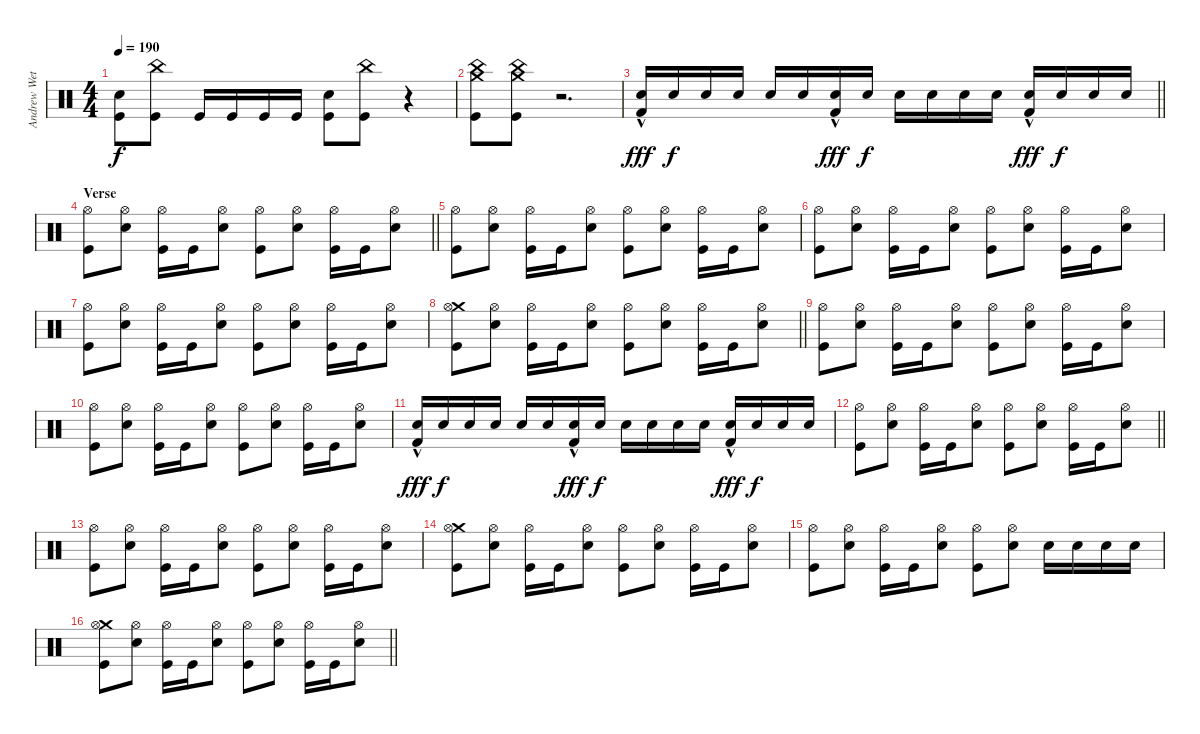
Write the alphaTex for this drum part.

\track ("Andrew Wetzel" "Andrew Wet") {instrument percussion}
\staff {score}
\articulation defaults
\ts (4 4)
\tempo 190
\clef neutral
\ks c
("Snare (hit) 2" "Kick (hit)").8{dy f} ("China (hit)" "Kick (hit)").8 "Kick (hit)".16 "Kick (hit)".16 "Kick (hit)".16 "Kick (hit)".16 ("Snare (hit) 2" "Kick (hit)").8 ("China (hit)" "Kick (hit)").8 r.4 |
("Crash medium (hit)" "China (hit)" "Kick (hit)").8 ("Crash medium (hit)" "China (hit)" "Kick (hit)").8 r.2{d} |
\barLineRight lightlight
("Snare (hit) 2"{hac} "Kick (hit) 2"{hac}).16{dy fff} "Snare (hit) 2".16{dy f} "Snare (hit) 2".16 "Snare (hit) 2".16 "Snare (hit) 2".16 "Snare (hit) 2".16 ("Snare (hit) 2"{hac} "Kick (hit) 2"{hac}).16{dy fff} "Snare (hit) 2".16{dy f} "Snare (hit) 2".16 "Snare (hit) 2".16 "Snare (hit) 2".16 "Snare (hit) 2".16 ("Snare (hit) 2"{hac} "Kick (hit) 2"{hac}).16{dy fff} "Snare (hit) 2".16{dy f} "Snare (hit) 2".16 "Snare (hit) 2".16 |
\section ("" "Verse")
\barLineRight lightlight
("Hi-Hat (open)" "Kick (hit)").8 ("Hi-Hat (open)" "Snare (hit) 2").8 ("Hi-Hat (open)" "Kick (hit)").16 "Kick (hit)".16 ("Hi-Hat (open)" "Snare (hit) 2").8 ("Hi-Hat (open)" "Kick (hit)").8 ("Hi-Hat (open)" "Snare (hit) 2").8 ("Hi-Hat (open)" "Kick (hit)").16 "Kick (hit)".16 ("Hi-Hat (open)" "Snare (hit) 2").8 |
("Hi-Hat (open)" "Kick (hit)").8 ("Hi-Hat (open)" "Snare (hit) 2").8 ("Hi-Hat (open)" "Kick (hit)").16 "Kick (hit)".16 ("Hi-Hat (open)" "Snare (hit) 2").8 ("Hi-Hat (open)" "Kick (hit)").8 ("Hi-Hat (open)" "Snare (hit) 2").8 ("Hi-Hat (open)" "Kick (hit)").16 "Kick (hit)".16 ("Hi-Hat (open)" "Snare (hit) 2").8 |
("Hi-Hat (open)" "Kick (hit)").8 ("Hi-Hat (open)" "Snare (hit) 2").8 ("Hi-Hat (open)" "Kick (hit)").16 "Kick (hit)".16 ("Hi-Hat (open)" "Snare (hit) 2").8 ("Hi-Hat (open)" "Kick (hit)").8 ("Hi-Hat (open)" "Snare (hit) 2").8 ("Hi-Hat (open)" "Kick (hit)").16 "Kick (hit)".16 ("Hi-Hat (open)" "Snare (hit) 2").8 |
("Hi-Hat (open)" "Kick (hit)").8 ("Hi-Hat (open)" "Snare (hit) 2").8 ("Hi-Hat (open)" "Kick (hit)").16 "Kick (hit)".16 ("Hi-Hat (open)" "Snare (hit) 2").8 ("Hi-Hat (open)" "Kick (hit)").8 ("Hi-Hat (open)" "Snare (hit) 2").8 ("Hi-Hat (open)" "Kick (hit)").16 "Kick (hit)".16 ("Hi-Hat (open)" "Snare (hit) 2").8 |
\barLineRight lightlight
("Crash medium (hit)" "Hi-Hat (open)" "Kick (hit)").8 ("Hi-Hat (open)" "Snare (hit) 2").8 ("Hi-Hat (open)" "Kick (hit)").16 "Kick (hit)".16 ("Hi-Hat (open)" "Snare (hit) 2").8 ("Hi-Hat (open)" "Kick (hit)").8 ("Hi-Hat (open)" "Snare (hit) 2").8 ("Hi-Hat (open)" "Kick (hit)").16 "Kick (hit)".16 ("Hi-Hat (open)" "Snare (hit) 2").8 |
("Hi-Hat (open)" "Kick (hit)").8 ("Hi-Hat (open)" "Snare (hit) 2").8 ("Hi-Hat (open)" "Kick (hit)").16 "Kick (hit)".16 ("Hi-Hat (open)" "Snare (hit) 2").8 ("Hi-Hat (open)" "Kick (hit)").8 ("Hi-Hat (open)" "Snare (hit) 2").8 ("Hi-Hat (open)" "Kick (hit)").16 "Kick (hit)".16 ("Hi-Hat (open)" "Snare (hit) 2").8 |
("Hi-Hat (open)" "Kick (hit)").8 ("Hi-Hat (open)" "Snare (hit) 2").8 ("Hi-Hat (open)" "Kick (hit)").16 "Kick (hit)".16 ("Hi-Hat (open)" "Snare (hit) 2").8 ("Hi-Hat (open)" "Kick (hit)").8 ("Hi-Hat (open)" "Snare (hit) 2").8 ("Hi-Hat (open)" "Kick (hit)").16 "Kick (hit)".16 ("Hi-Hat (open)" "Snare (hit) 2").8 |
("Snare (hit) 2"{hac} "Kick (hit) 2"{hac}).16{dy fff} "Snare (hit) 2".16{dy f} "Snare (hit) 2".16 "Snare (hit) 2".16 "Snare (hit) 2".16 "Snare (hit) 2".16 ("Snare (hit) 2"{hac} "Kick (hit) 2"{hac}).16{dy fff} "Snare (hit) 2".16{dy f} "Snare (hit) 2".16 "Snare (hit) 2".16 "Snare (hit) 2".16 "Snare (hit) 2".16 ("Snare (hit) 2"{hac} "Kick (hit) 2"{hac}).16{dy fff} "Snare (hit) 2".16{dy f} "Snare (hit) 2".16 "Snare (hit) 2".16 |
\barLineRight lightlight
("Hi-Hat (open)" "Kick (hit)").8 ("Hi-Hat (open)" "Snare (hit) 2").8 ("Hi-Hat (open)" "Kick (hit)").16 "Kick (hit)".16 ("Hi-Hat (open)" "Snare (hit) 2").8 ("Hi-Hat (open)" "Kick (hit)").8 ("Hi-Hat (open)" "Snare (hit) 2").8 ("Hi-Hat (open)" "Kick (hit)").16 "Kick (hit)".16 ("Hi-Hat (open)" "Snare (hit) 2").8 |
("Hi-Hat (open)" "Kick (hit)").8 ("Hi-Hat (open)" "Snare (hit) 2").8 ("Hi-Hat (open)" "Kick (hit)").16 "Kick (hit)".16 ("Hi-Hat (open)" "Snare (hit) 2").8 ("Hi-Hat (open)" "Kick (hit)").8 ("Hi-Hat (open)" "Snare (hit) 2").8 ("Hi-Hat (open)" "Kick (hit)").16 "Kick (hit)".16 ("Hi-Hat (open)" "Snare (hit) 2").8 |
("Crash medium (hit)" "Hi-Hat (open)" "Kick (hit)").8 ("Hi-Hat (open)" "Snare (hit) 2").8 ("Hi-Hat (open)" "Kick (hit)").16 "Kick (hit)".16 ("Hi-Hat (open)" "Snare (hit) 2").8 ("Hi-Hat (open)" "Kick (hit)").8 ("Hi-Hat (open)" "Snare (hit) 2").8 ("Hi-Hat (open)" "Kick (hit)").16 "Kick (hit)".16 ("Hi-Hat (open)" "Snare (hit) 2").8 |
("Hi-Hat (open)" "Kick (hit)").8 ("Hi-Hat (open)" "Snare (hit) 2").8 ("Hi-Hat (open)" "Kick (hit)").16 "Kick (hit)".16 ("Hi-Hat (open)" "Snare (hit) 2").8 ("Hi-Hat (open)" "Kick (hit)").8 ("Hi-Hat (open)" "Snare (hit) 2").8 "Snare (hit) 2".16 "Snare (hit) 2".16 "Snare (hit) 2".16 "Snare (hit) 2".16 |
\barLineRight lightlight
("Crash medium (hit)" "Hi-Hat (open)" "Kick (hit)").8 ("Hi-Hat (open)" "Snare (hit) 2").8 ("Hi-Hat (open)" "Kick (hit)").16 "Kick (hit)".16 ("Hi-Hat (open)" "Snare (hit) 2").8 ("Hi-Hat (open)" "Kick (hit)").8 ("Hi-Hat (open)" "Snare (hit) 2").8 ("Hi-Hat (open)" "Kick (hit)").16 "Kick (hit)".16 ("Hi-Hat (open)" "Snare (hit) 2").8
